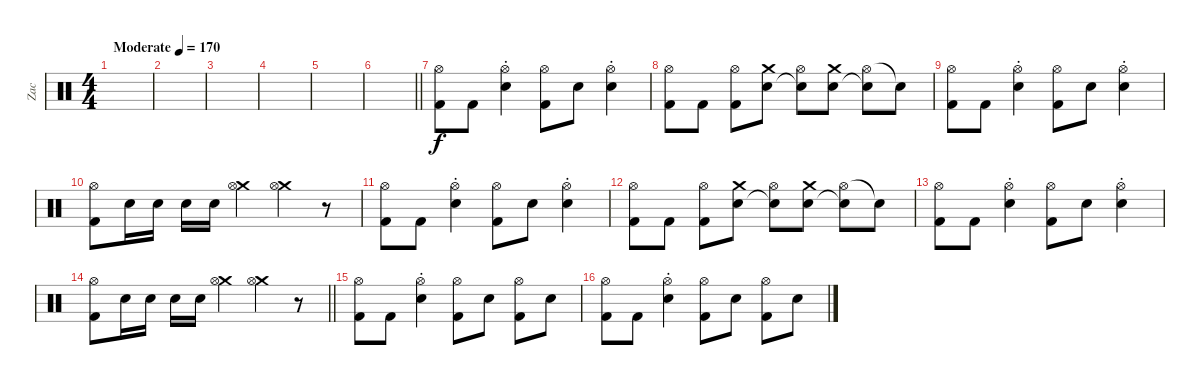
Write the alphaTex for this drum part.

\track ("Zac" "Zac") {instrument percussion}
\staff {score}
\articulation defaults
\ts (4 4)
\tempo (170 "Moderate")
\clef neutral
\ks c
|
|
|
|
|
\barLineRight lightlight
|
\section ("" "")
("Hi-Hat (open)" "Kick (hit) 2").8 "Kick (hit) 2".8 ("Hi-Hat (open)"{st} "Electric Snare (hit)").4 ("Hi-Hat (open)" "Kick (hit) 2").8 "Electric Snare (hit)".8 ("Hi-Hat (open)"{st} "Electric Snare (hit)").4 |
("Hi-Hat (open)" "Kick (hit) 2").8 "Kick (hit) 2".8 ("Hi-Hat (open)" "Kick (hit) 2").8 ("Crash medium (hit)" "Electric Snare (hit)").8 ("Hi-Hat (open)" "Electric Snare (hit)"{t}).8 ("Crash medium (hit)" "Electric Snare (hit)").8 ("Hi-Hat (open)" "Electric Snare (hit)"{t}).8 "Electric Snare (hit)"{t}.8 |
("Hi-Hat (open)" "Kick (hit) 2").8 "Kick (hit) 2".8 ("Hi-Hat (open)"{st} "Electric Snare (hit)").4 ("Hi-Hat (open)" "Kick (hit) 2").8 "Electric Snare (hit)".8 ("Hi-Hat (open)"{st} "Electric Snare (hit)").4 |
("Hi-Hat (open)" "Kick (hit) 2").8 "Electric Snare (hit)".16 "Electric Snare (hit)".16 "Electric Snare (hit)".16 "Electric Snare (hit)".16 ("Crash medium (hit)" "Hi-Hat (open)").4 ("Crash medium (hit)" "Hi-Hat (open)").4 r.8 |
("Hi-Hat (open)" "Kick (hit) 2").8 "Kick (hit) 2".8 ("Hi-Hat (open)"{st} "Electric Snare (hit)").4 ("Hi-Hat (open)" "Kick (hit) 2").8 "Electric Snare (hit)".8 ("Hi-Hat (open)"{st} "Electric Snare (hit)").4 |
("Hi-Hat (open)" "Kick (hit) 2").8 "Kick (hit) 2".8 ("Hi-Hat (open)" "Kick (hit) 2").8 ("Crash medium (hit)" "Electric Snare (hit)").8 ("Hi-Hat (open)" "Electric Snare (hit)"{t}).8 ("Crash medium (hit)" "Electric Snare (hit)").8 ("Hi-Hat (open)" "Electric Snare (hit)"{t}).8 "Electric Snare (hit)"{t}.8 |
("Hi-Hat (open)" "Kick (hit) 2").8 "Kick (hit) 2".8 ("Hi-Hat (open)"{st} "Electric Snare (hit)").4 ("Hi-Hat (open)" "Kick (hit) 2").8 "Electric Snare (hit)".8 ("Hi-Hat (open)"{st} "Electric Snare (hit)").4 |
\barLineRight lightlight
("Hi-Hat (open)" "Kick (hit) 2").8 "Electric Snare (hit)".16 "Electric Snare (hit)".16 "Electric Snare (hit)".16 "Electric Snare (hit)".16 ("Crash medium (hit)" "Hi-Hat (open)").4 ("Crash medium (hit)" "Hi-Hat (open)").4 r.8 |
\section ("" "")
("Hi-Hat (open)" "Kick (hit) 2").8 "Kick (hit) 2".8 ("Hi-Hat (open)"{st} "Electric Snare (hit)").4 ("Hi-Hat (open)" "Kick (hit) 2").8 "Electric Snare (hit)".8 ("Hi-Hat (open)" "Kick (hit) 2").8 "Electric Snare (hit)".8 |
("Hi-Hat (open)" "Kick (hit) 2").8 "Kick (hit) 2".8 ("Hi-Hat (open)"{st} "Electric Snare (hit)").4 ("Hi-Hat (open)" "Kick (hit) 2").8 "Electric Snare (hit)".8 ("Hi-Hat (open)" "Kick (hit) 2").8 "Electric Snare (hit)".8
